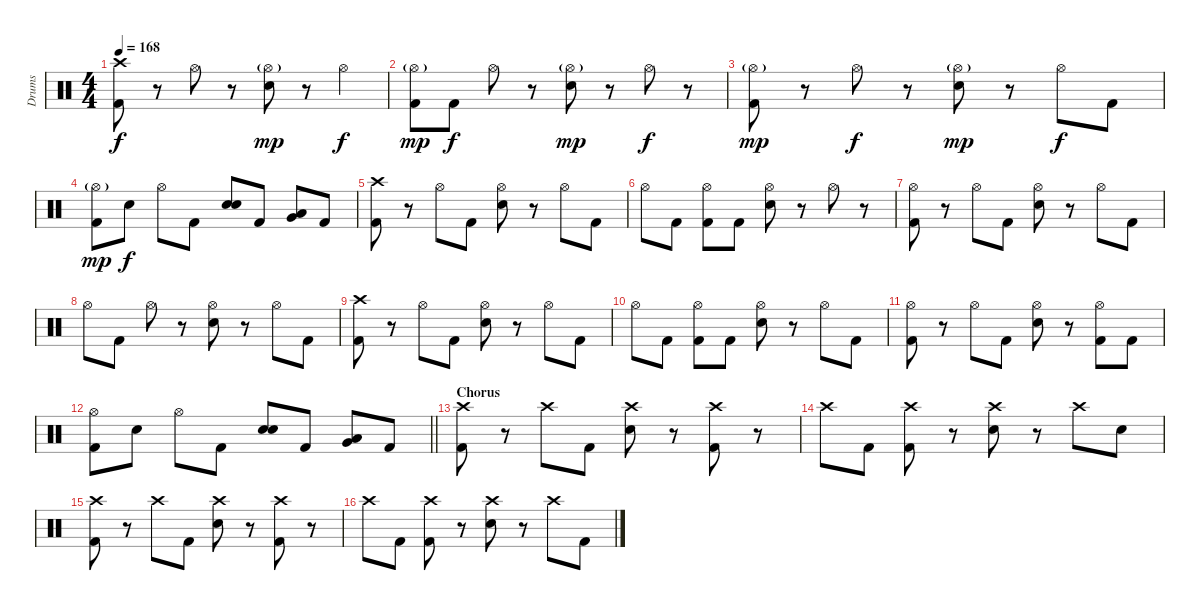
\track ("Drums" "Drums") {instrument percussion}
\staff {score}
\articulation defaults
\ts (4 4)
\tempo 168
\clef neutral
\ks c
("Crash high (hit)" "Kick (hit) 2").8{dy f} r.8 "Hi-Hat (open)".8 r.8 ("Hi-Hat (open)"{g} "Snare (hit) 2").8{dy mp} r.8 "Hi-Hat (open)".4{dy f} |
("Hi-Hat (open)"{g} "Kick (hit) 2").8{dy mp} "Kick (hit) 2".8{dy f} "Hi-Hat (open)".8 r.8 ("Hi-Hat (open)"{g} "Snare (hit) 2").8{dy mp} r.8 "Hi-Hat (open)".8{dy f} r.8 |
("Hi-Hat (open)"{g} "Kick (hit) 2").8{dy mp} r.8 "Hi-Hat (open)".8{dy f} r.8 ("Hi-Hat (open)"{g} "Snare (hit) 2").8{dy mp} r.8 "Hi-Hat (open)".8{dy f} "Kick (hit) 2".8 |
("Hi-Hat (open)"{g} "Kick (hit) 2").8{dy mp} "Snare (hit) 2".8{dy f} "Hi-Hat (open)".8 "Kick (hit) 2".8 ("Snare (hit) 2" "Snare (hit) 2").8 "Kick (hit) 2".8 ("Low Floor Tom (hit)" "Very Low Tom (hit)").8 "Kick (hit) 2".8 |
("Crash high (hit)" "Kick (hit) 2").8 r.8 "Hi-Hat (open)".8 "Kick (hit) 2".8 ("Hi-Hat (open)" "Snare (hit) 2").8 r.8 "Hi-Hat (open)".8 "Kick (hit) 2".8 |
"Hi-Hat (open)".8 "Kick (hit) 2".8 ("Hi-Hat (open)" "Kick (hit) 2").8 "Kick (hit) 2".8 ("Hi-Hat (open)" "Snare (hit) 2").8 r.8 "Hi-Hat (open)".8 r.8 |
("Hi-Hat (open)" "Kick (hit) 2").8 r.8 "Hi-Hat (open)".8 "Kick (hit) 2".8 ("Hi-Hat (open)" "Snare (hit) 2").8 r.8 "Hi-Hat (open)".8 "Kick (hit) 2".8 |
"Hi-Hat (open)".8 "Kick (hit) 2".8 "Hi-Hat (open)".8 r.8 ("Hi-Hat (open)" "Snare (hit) 2").8 r.8 "Hi-Hat (open)".8 "Kick (hit) 2".8 |
("Crash high (hit)" "Kick (hit) 2").8 r.8 "Hi-Hat (open)".8 "Kick (hit) 2".8 ("Hi-Hat (open)" "Snare (hit) 2").8 r.8 "Hi-Hat (open)".8 "Kick (hit) 2".8 |
"Hi-Hat (open)".8 "Kick (hit) 2".8 ("Hi-Hat (open)" "Kick (hit) 2").8 "Kick (hit) 2".8 ("Hi-Hat (open)" "Snare (hit) 2").8 r.8 "Hi-Hat (open)".8 "Kick (hit) 2".8 |
("Hi-Hat (open)" "Kick (hit) 2").8 r.8 "Hi-Hat (open)".8 "Kick (hit) 2".8 ("Hi-Hat (open)" "Snare (hit) 2").8 r.8 ("Hi-Hat (open)" "Kick (hit) 2").8 "Kick (hit) 2".8 |
\barLineRight lightlight
("Hi-Hat (open)" "Kick (hit) 2").8 "Snare (hit) 2".8 "Hi-Hat (open)".8 "Kick (hit) 2".8 ("Snare (hit) 2" "Snare (hit) 2").8 "Kick (hit) 2".8 ("Low Floor Tom (hit)" "Very Low Tom (hit)").8 "Kick (hit) 2".8 |
\section ("" "Chorus")
("Crash high (hit)" "Kick (hit) 2").8 r.8 "Crash high (hit)".8 "Kick (hit) 2".8 ("Crash high (hit)" "Snare (hit) 2").8 r.8 ("Crash high (hit)" "Kick (hit) 2").8 r.8 |
"Crash high (hit)".8 "Kick (hit) 2".8 ("Crash high (hit)" "Kick (hit) 2").8 r.8 ("Crash high (hit)" "Snare (hit) 2").8 r.8 "Crash high (hit)".8 "Snare (hit) 2".8 |
("Crash high (hit)" "Kick (hit) 2").8 r.8 "Crash high (hit)".8 "Kick (hit) 2".8 ("Crash high (hit)" "Snare (hit) 2").8 r.8 ("Crash high (hit)" "Kick (hit) 2").8 r.8 |
"Crash high (hit)".8 "Kick (hit) 2".8 ("Crash high (hit)" "Kick (hit) 2").8 r.8 ("Crash high (hit)" "Snare (hit) 2").8 r.8 "Crash high (hit)".8 "Kick (hit) 2".8
